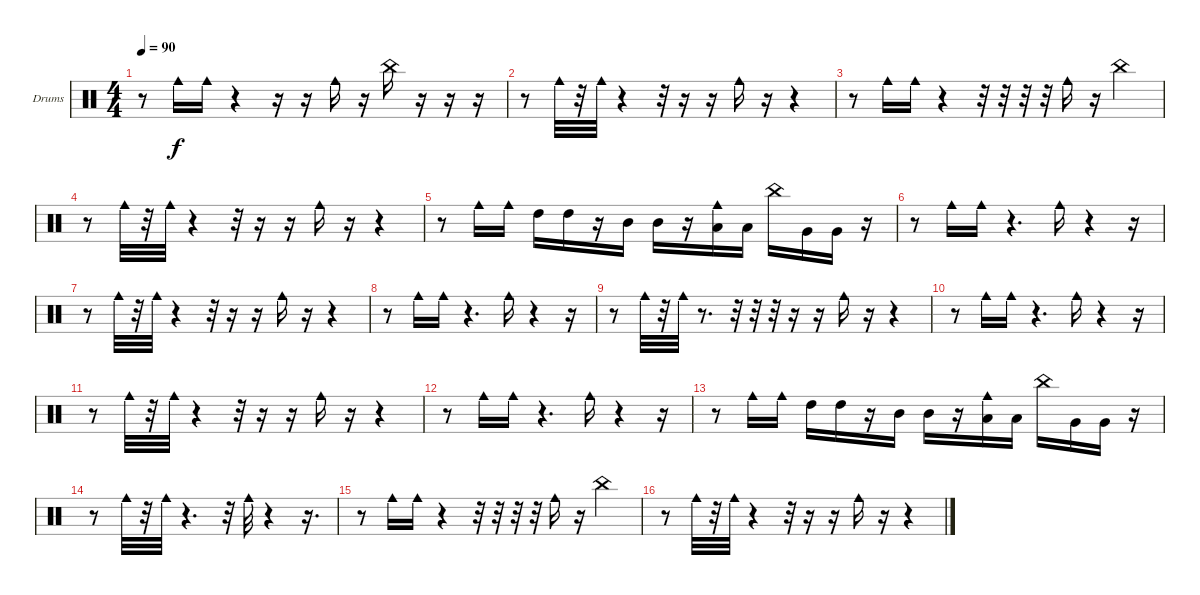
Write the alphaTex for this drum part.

\defaultSystemsLayout 4
\bracketExtendMode groupsimilarinstruments
\firstSystemTrackNameOrientation horizontal
\otherSystemsTrackNameOrientation horizontal
\track ("Drumkit" "Drums") {instrument percussion}
\staff {score}
\articulation defaults
\ts (4 4)
\tempo 90
\clef neutral
\scale
0.333333
\ks c
r.8{dy f} "Cowbell medium (hit)".16 "Cowbell medium (hit)".16 r.4 r.16 r.16 "Cowbell medium (hit)".16 r.16 "China (hit)".16 r.16 r.16 r.16 |
\scale
0.333333 r.8 "Cowbell medium (hit)".32 r.32 "Cowbell medium (hit)".32 r.4 r.32 r.16 r.16 "Cowbell medium (hit)".16 r.16 r.4 |
\scale
0.333333 r.8 "Cowbell medium (hit)".16 "Cowbell medium (hit)".16 r.4 r.32 r.32 r.32 r.32 "Cowbell medium (hit)".16 r.16 "China (hit)".4 |
\scale
0.333333 r.8 "Cowbell medium (hit)".32 r.32 "Cowbell medium (hit)".32 r.4 r.32 r.16 r.16 "Cowbell medium (hit)".16 r.16 r.4 |
\scale
0.333333 r.8 "Cowbell medium (hit)".16 "Cowbell medium (hit)".16 "High Tom (hit)".16 "High Tom (hit)".16 r.16 "Mid Tom (hit)".16 "Mid Tom (hit)".16 r.16 ("Low Tom (hit)" "Cowbell medium (hit)").16 "Low Tom (hit)".16 "China (hit)".16 "Very Low Tom (hit)".16 "Very Low Tom (hit)".16 r.16 |
\scale
0.333333 r.8 "Cowbell medium (hit)".16 "Cowbell medium (hit)".16 r.4{d} "Cowbell medium (hit)".16 r.4 r.16 |
\scale
0.333333 r.8 "Cowbell medium (hit)".32 r.32 "Cowbell medium (hit)".32 r.4 r.32 r.16 r.16 "Cowbell medium (hit)".16 r.16 r.4 |
\scale
0.333333 r.8 "Cowbell medium (hit)".16 "Cowbell medium (hit)".16 r.4{d} "Cowbell medium (hit)".16 r.4 r.16 |
\scale
0.333333 r.8 "Cowbell medium (hit)".32 r.32 "Cowbell medium (hit)".32 r.8{d} r.32 r.32 r.32 r.16 r.16 "Cowbell medium (hit)".16 r.16 r.4 |
\scale
0.333333 r.8 "Cowbell medium (hit)".16 "Cowbell medium (hit)".16 r.4{d} "Cowbell medium (hit)".16 r.4 r.16 |
\scale
0.333333 r.8 "Cowbell medium (hit)".32 r.32 "Cowbell medium (hit)".32 r.4 r.32 r.16 r.16 "Cowbell medium (hit)".16 r.16 r.4 |
\scale
0.333333 r.8 "Cowbell medium (hit)".16 "Cowbell medium (hit)".16 r.4{d} "Cowbell medium (hit)".16 r.4 r.16 |
\scale
0.333333 r.8 "Cowbell medium (hit)".16 "Cowbell medium (hit)".16 "High Tom (hit)".16 "High Tom (hit)".16 r.16 "Mid Tom (hit)".16 "Mid Tom (hit)".16 r.16 ("Cowbell medium (hit)" "Low Tom (hit)").16 "Low Tom (hit)".16 "China (hit)".16 "Very Low Tom (hit)".16 "Very Low Tom (hit)".16 r.16 |
\scale
0.333333 r.8 "Cowbell medium (hit)".32 r.32 "Cowbell medium (hit)".32 r.4{d} r.32 "Cowbell medium (hit)".32 r.4 r.16{d} |
\scale
0.333333 r.8 "Cowbell medium (hit)".16 "Cowbell medium (hit)".16 r.4 r.32 r.32 r.32 r.32 "Cowbell medium (hit)".16 r.16 "China (hit)".4 |
\scale
0.333333 r.8 "Cowbell medium (hit)".32 r.32 "Cowbell medium (hit)".32 r.4 r.32 r.16 r.16 "Cowbell medium (hit)".16 r.16 r.4
